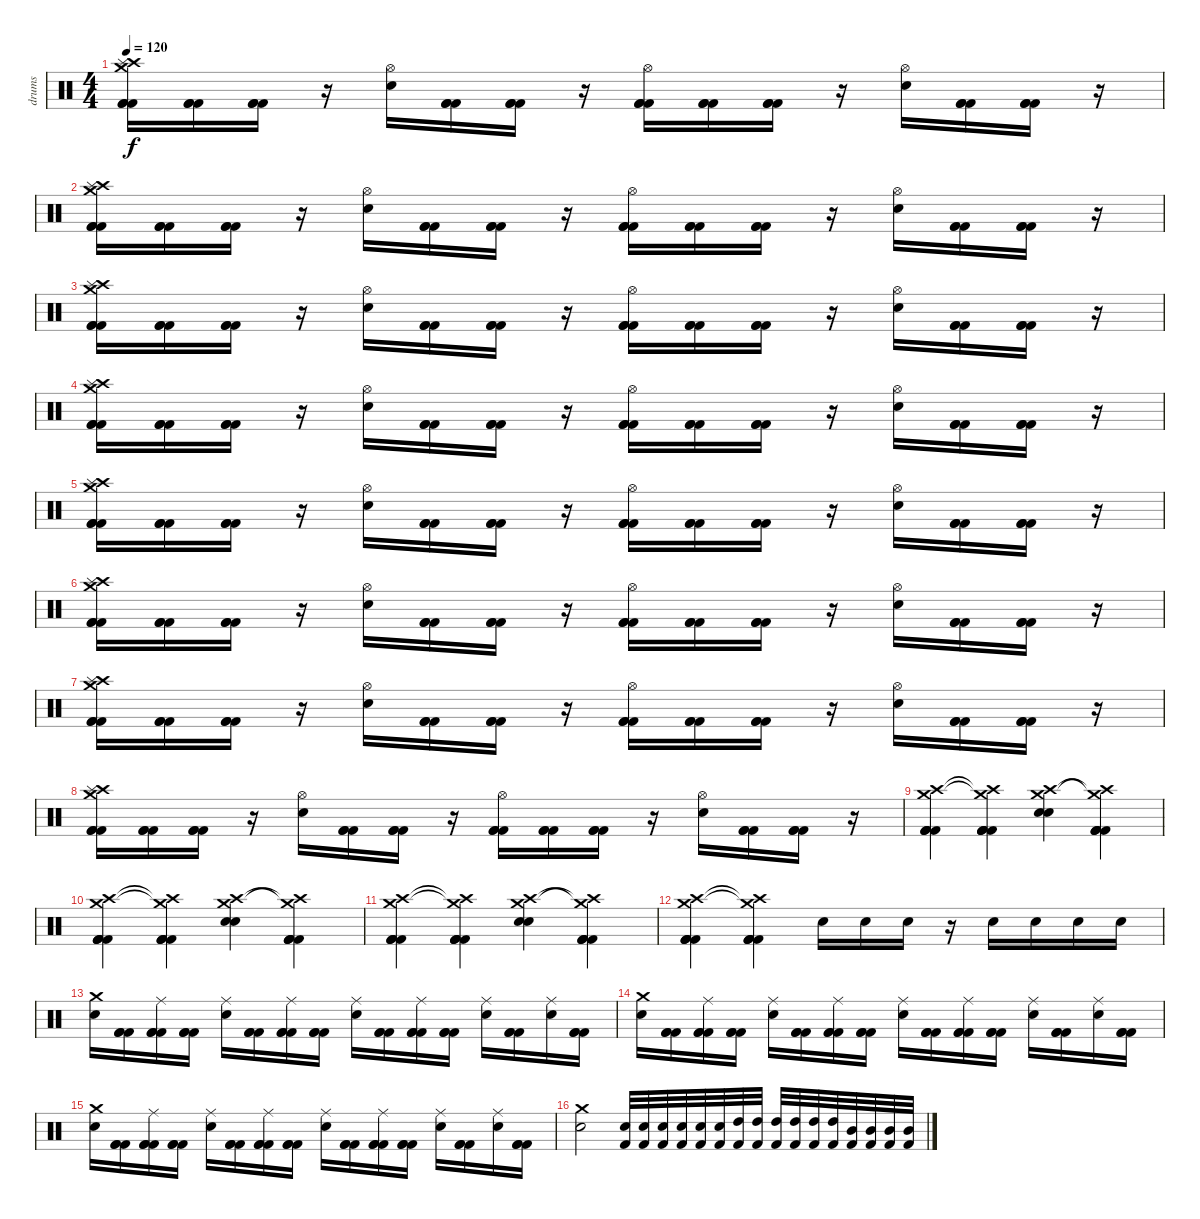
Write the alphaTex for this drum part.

\track ("drums" "drums") {instrument percussion}
\staff {score}
\articulation defaults
\ts (4 4)
\tempo 120
\clef neutral
\ks c
("Crash medium (hit)" "Crash high (hit)" "Splash (hit)" "Kick (hit) 2" "Kick (hit) 2" "Kick (hit) 2").16{dy f} ("Kick (hit) 2" "Kick (hit) 2" "Kick (hit) 2").16 ("Kick (hit) 2" "Kick (hit) 2" "Kick (hit) 2").16 r.16 ("Hi-Hat (open)" "Electric Snare (hit)").16 ("Kick (hit) 2" "Kick (hit) 2" "Kick (hit) 2").16 ("Kick (hit) 2" "Kick (hit) 2" "Kick (hit) 2").16 r.16 ("Hi-Hat (open)" "Kick (hit) 2" "Kick (hit) 2" "Kick (hit) 2").16 ("Kick (hit) 2" "Kick (hit) 2" "Kick (hit) 2").16 ("Kick (hit) 2" "Kick (hit) 2" "Kick (hit) 2").16 r.16 ("Hi-Hat (open)" "Electric Snare (hit)").16 ("Kick (hit) 2" "Kick (hit) 2" "Kick (hit) 2").16 ("Kick (hit) 2" "Kick (hit) 2" "Kick (hit) 2").16 r.16 |
("Crash medium (hit)" "Crash high (hit)" "Splash (hit)" "Kick (hit) 2" "Kick (hit) 2" "Kick (hit) 2").16 ("Kick (hit) 2" "Kick (hit) 2" "Kick (hit) 2").16 ("Kick (hit) 2" "Kick (hit) 2" "Kick (hit) 2").16 r.16 ("Hi-Hat (open)" "Electric Snare (hit)").16 ("Kick (hit) 2" "Kick (hit) 2" "Kick (hit) 2").16 ("Kick (hit) 2" "Kick (hit) 2" "Kick (hit) 2").16 r.16 ("Hi-Hat (open)" "Kick (hit) 2" "Kick (hit) 2" "Kick (hit) 2").16 ("Kick (hit) 2" "Kick (hit) 2" "Kick (hit) 2").16 ("Kick (hit) 2" "Kick (hit) 2" "Kick (hit) 2").16 r.16 ("Hi-Hat (open)" "Electric Snare (hit)").16 ("Kick (hit) 2" "Kick (hit) 2" "Kick (hit) 2").16 ("Kick (hit) 2" "Kick (hit) 2" "Kick (hit) 2").16 r.16 |
("Crash medium (hit)" "Crash high (hit)" "Splash (hit)" "Kick (hit) 2" "Kick (hit) 2" "Kick (hit) 2").16 ("Kick (hit) 2" "Kick (hit) 2" "Kick (hit) 2").16 ("Kick (hit) 2" "Kick (hit) 2" "Kick (hit) 2").16 r.16 ("Hi-Hat (open)" "Electric Snare (hit)").16 ("Kick (hit) 2" "Kick (hit) 2" "Kick (hit) 2").16 ("Kick (hit) 2" "Kick (hit) 2" "Kick (hit) 2").16 r.16 ("Hi-Hat (open)" "Kick (hit) 2" "Kick (hit) 2" "Kick (hit) 2").16 ("Kick (hit) 2" "Kick (hit) 2" "Kick (hit) 2").16 ("Kick (hit) 2" "Kick (hit) 2" "Kick (hit) 2").16 r.16 ("Hi-Hat (open)" "Electric Snare (hit)").16 ("Kick (hit) 2" "Kick (hit) 2" "Kick (hit) 2").16 ("Kick (hit) 2" "Kick (hit) 2" "Kick (hit) 2").16 r.16 |
("Crash medium (hit)" "Crash high (hit)" "Splash (hit)" "Kick (hit) 2" "Kick (hit) 2" "Kick (hit) 2").16 ("Kick (hit) 2" "Kick (hit) 2" "Kick (hit) 2").16 ("Kick (hit) 2" "Kick (hit) 2" "Kick (hit) 2").16 r.16 ("Hi-Hat (open)" "Electric Snare (hit)").16 ("Kick (hit) 2" "Kick (hit) 2" "Kick (hit) 2").16 ("Kick (hit) 2" "Kick (hit) 2" "Kick (hit) 2").16 r.16 ("Hi-Hat (open)" "Kick (hit) 2" "Kick (hit) 2" "Kick (hit) 2").16 ("Kick (hit) 2" "Kick (hit) 2" "Kick (hit) 2").16 ("Kick (hit) 2" "Kick (hit) 2" "Kick (hit) 2").16 r.16 ("Hi-Hat (open)" "Electric Snare (hit)").16 ("Kick (hit) 2" "Kick (hit) 2" "Kick (hit) 2").16 ("Kick (hit) 2" "Kick (hit) 2" "Kick (hit) 2").16 r.16 |
("Crash medium (hit)" "Crash high (hit)" "Splash (hit)" "Kick (hit) 2" "Kick (hit) 2" "Kick (hit) 2").16 ("Kick (hit) 2" "Kick (hit) 2" "Kick (hit) 2").16 ("Kick (hit) 2" "Kick (hit) 2" "Kick (hit) 2").16 r.16 ("Hi-Hat (open)" "Electric Snare (hit)").16 ("Kick (hit) 2" "Kick (hit) 2" "Kick (hit) 2").16 ("Kick (hit) 2" "Kick (hit) 2" "Kick (hit) 2").16 r.16 ("Hi-Hat (open)" "Kick (hit) 2" "Kick (hit) 2" "Kick (hit) 2").16 ("Kick (hit) 2" "Kick (hit) 2" "Kick (hit) 2").16 ("Kick (hit) 2" "Kick (hit) 2" "Kick (hit) 2").16 r.16 ("Hi-Hat (open)" "Electric Snare (hit)").16 ("Kick (hit) 2" "Kick (hit) 2" "Kick (hit) 2").16 ("Kick (hit) 2" "Kick (hit) 2" "Kick (hit) 2").16 r.16 |
("Crash medium (hit)" "Crash high (hit)" "Splash (hit)" "Kick (hit) 2" "Kick (hit) 2" "Kick (hit) 2").16 ("Kick (hit) 2" "Kick (hit) 2" "Kick (hit) 2").16 ("Kick (hit) 2" "Kick (hit) 2" "Kick (hit) 2").16 r.16 ("Hi-Hat (open)" "Electric Snare (hit)").16 ("Kick (hit) 2" "Kick (hit) 2" "Kick (hit) 2").16 ("Kick (hit) 2" "Kick (hit) 2" "Kick (hit) 2").16 r.16 ("Hi-Hat (open)" "Kick (hit) 2" "Kick (hit) 2" "Kick (hit) 2").16 ("Kick (hit) 2" "Kick (hit) 2" "Kick (hit) 2").16 ("Kick (hit) 2" "Kick (hit) 2" "Kick (hit) 2").16 r.16 ("Hi-Hat (open)" "Electric Snare (hit)").16 ("Kick (hit) 2" "Kick (hit) 2" "Kick (hit) 2").16 ("Kick (hit) 2" "Kick (hit) 2" "Kick (hit) 2").16 r.16 |
("Crash medium (hit)" "Crash high (hit)" "Splash (hit)" "Kick (hit) 2" "Kick (hit) 2" "Kick (hit) 2").16 ("Kick (hit) 2" "Kick (hit) 2" "Kick (hit) 2").16 ("Kick (hit) 2" "Kick (hit) 2" "Kick (hit) 2").16 r.16 ("Hi-Hat (open)" "Electric Snare (hit)").16 ("Kick (hit) 2" "Kick (hit) 2" "Kick (hit) 2").16 ("Kick (hit) 2" "Kick (hit) 2" "Kick (hit) 2").16 r.16 ("Hi-Hat (open)" "Kick (hit) 2" "Kick (hit) 2" "Kick (hit) 2").16 ("Kick (hit) 2" "Kick (hit) 2" "Kick (hit) 2").16 ("Kick (hit) 2" "Kick (hit) 2" "Kick (hit) 2").16 r.16 ("Hi-Hat (open)" "Electric Snare (hit)").16 ("Kick (hit) 2" "Kick (hit) 2" "Kick (hit) 2").16 ("Kick (hit) 2" "Kick (hit) 2" "Kick (hit) 2").16 r.16 |
("Crash medium (hit)" "Crash high (hit)" "Splash (hit)" "Kick (hit) 2" "Kick (hit) 2" "Kick (hit) 2").16 ("Kick (hit) 2" "Kick (hit) 2" "Kick (hit) 2").16 ("Kick (hit) 2" "Kick (hit) 2" "Kick (hit) 2").16 r.16 ("Hi-Hat (open)" "Electric Snare (hit)").16 ("Kick (hit) 2" "Kick (hit) 2" "Kick (hit) 2").16 ("Kick (hit) 2" "Kick (hit) 2" "Kick (hit) 2").16 r.16 ("Hi-Hat (open)" "Kick (hit) 2" "Kick (hit) 2" "Kick (hit) 2").16 ("Kick (hit) 2" "Kick (hit) 2" "Kick (hit) 2").16 ("Kick (hit) 2" "Kick (hit) 2" "Kick (hit) 2").16 r.16 ("Hi-Hat (open)" "Electric Snare (hit)").16 ("Kick (hit) 2" "Kick (hit) 2" "Kick (hit) 2").16 ("Kick (hit) 2" "Kick (hit) 2" "Kick (hit) 2").16 r.16 |
("Crash high (hit)" "Crash medium (hit)" "Kick (hit) 2" "Kick (hit) 2" "Kick (hit) 2" "Kick (hit) 2").4 ("Crash high (hit)"{t} "Crash medium (hit)"{t} "Kick (hit) 2" "Kick (hit) 2" "Kick (hit) 2" "Kick (hit) 2").4 ("Crash medium (hit)" "Crash high (hit)" "Electric Snare (hit)" "Electric Snare (hit)").4 ("Crash high (hit)"{t} "Crash medium (hit)"{t} "Kick (hit) 2" "Kick (hit) 2" "Kick (hit) 2" "Kick (hit) 2").4 |
("Crash high (hit)" "Crash medium (hit)" "Kick (hit) 2" "Kick (hit) 2" "Kick (hit) 2" "Kick (hit) 2").4 ("Crash high (hit)"{t} "Crash medium (hit)"{t} "Kick (hit) 2" "Kick (hit) 2" "Kick (hit) 2" "Kick (hit) 2").4 ("Crash medium (hit)" "Crash high (hit)" "Electric Snare (hit)" "Electric Snare (hit)").4 ("Crash high (hit)"{t} "Crash medium (hit)"{t} "Kick (hit) 2" "Kick (hit) 2" "Kick (hit) 2" "Kick (hit) 2").4 |
("Crash high (hit)" "Crash medium (hit)" "Kick (hit) 2" "Kick (hit) 2" "Kick (hit) 2" "Kick (hit) 2").4 ("Crash high (hit)"{t} "Crash medium (hit)"{t} "Kick (hit) 2" "Kick (hit) 2" "Kick (hit) 2" "Kick (hit) 2").4 ("Crash medium (hit)" "Crash high (hit)" "Electric Snare (hit)" "Electric Snare (hit)").4 ("Crash high (hit)"{t} "Crash medium (hit)"{t} "Kick (hit) 2" "Kick (hit) 2" "Kick (hit) 2" "Kick (hit) 2").4 |
("Crash high (hit)" "Crash medium (hit)" "Kick (hit) 2" "Kick (hit) 2" "Kick (hit) 2" "Kick (hit) 2").4 ("Crash high (hit)"{t} "Crash medium (hit)"{t} "Kick (hit) 2" "Kick (hit) 2" "Kick (hit) 2" "Kick (hit) 2").4 "Electric Snare (hit)".16 "Electric Snare (hit)".16 "Electric Snare (hit)".16 r.16 "Electric Snare (hit)".16 "Electric Snare (hit)".16 "Electric Snare (hit)".16 "Electric Snare (hit)".16 |
("Crash medium (hit)" "Electric Snare (hit)").16 ("Kick (hit) 2" "Kick (hit) 2" "Kick (hit) 2").16 ("Ride (middle)" "Kick (hit) 2" "Kick (hit) 2" "Kick (hit) 2").16 ("Kick (hit) 2" "Kick (hit) 2" "Kick (hit) 2").16 ("Ride (middle)" "Electric Snare (hit)").16 ("Kick (hit) 2" "Kick (hit) 2" "Kick (hit) 2").16 ("Ride (middle)" "Kick (hit) 2" "Kick (hit) 2" "Kick (hit) 2").16 ("Kick (hit) 2" "Kick (hit) 2" "Kick (hit) 2").16 ("Ride (middle)" "Electric Snare (hit)").16 ("Kick (hit) 2" "Kick (hit) 2" "Kick (hit) 2").16 ("Ride (middle)" "Kick (hit) 2" "Kick (hit) 2" "Kick (hit) 2").16 ("Kick (hit) 2" "Kick (hit) 2" "Kick (hit) 2").16 ("Ride (middle)" "Electric Snare (hit)").16 ("Kick (hit) 2" "Kick (hit) 2" "Kick (hit) 2").16 ("Ride (middle)" "Electric Snare (hit)").16 ("Kick (hit) 2" "Kick (hit) 2" "Kick (hit) 2").16 |
("Crash medium (hit)" "Electric Snare (hit)").16 ("Kick (hit) 2" "Kick (hit) 2" "Kick (hit) 2").16 ("Ride (middle)" "Kick (hit) 2" "Kick (hit) 2" "Kick (hit) 2").16 ("Kick (hit) 2" "Kick (hit) 2" "Kick (hit) 2").16 ("Ride (middle)" "Electric Snare (hit)").16 ("Kick (hit) 2" "Kick (hit) 2" "Kick (hit) 2").16 ("Ride (middle)" "Kick (hit) 2" "Kick (hit) 2" "Kick (hit) 2").16 ("Kick (hit) 2" "Kick (hit) 2" "Kick (hit) 2").16 ("Ride (middle)" "Electric Snare (hit)").16 ("Kick (hit) 2" "Kick (hit) 2" "Kick (hit) 2").16 ("Ride (middle)" "Kick (hit) 2" "Kick (hit) 2" "Kick (hit) 2").16 ("Kick (hit) 2" "Kick (hit) 2" "Kick (hit) 2").16 ("Ride (middle)" "Electric Snare (hit)").16 ("Kick (hit) 2" "Kick (hit) 2" "Kick (hit) 2").16 ("Ride (middle)" "Electric Snare (hit)").16 ("Kick (hit) 2" "Kick (hit) 2" "Kick (hit) 2").16 |
("Crash medium (hit)" "Electric Snare (hit)").16 ("Kick (hit) 2" "Kick (hit) 2" "Kick (hit) 2").16 ("Ride (middle)" "Kick (hit) 2" "Kick (hit) 2" "Kick (hit) 2").16 ("Kick (hit) 2" "Kick (hit) 2" "Kick (hit) 2").16 ("Ride (middle)" "Electric Snare (hit)").16 ("Kick (hit) 2" "Kick (hit) 2" "Kick (hit) 2").16 ("Ride (middle)" "Kick (hit) 2" "Kick (hit) 2" "Kick (hit) 2").16 ("Kick (hit) 2" "Kick (hit) 2" "Kick (hit) 2").16 ("Ride (middle)" "Electric Snare (hit)").16 ("Kick (hit) 2" "Kick (hit) 2" "Kick (hit) 2").16 ("Ride (middle)" "Kick (hit) 2" "Kick (hit) 2" "Kick (hit) 2").16 ("Kick (hit) 2" "Kick (hit) 2" "Kick (hit) 2").16 ("Ride (middle)" "Electric Snare (hit)").16 ("Kick (hit) 2" "Kick (hit) 2" "Kick (hit) 2").16 ("Ride (middle)" "Electric Snare (hit)").16 ("Kick (hit) 2" "Kick (hit) 2" "Kick (hit) 2").16 |
("Crash medium (hit)" "Electric Snare (hit)").2 ("Electric Snare (hit)" "Kick (hit) 2").32 ("Electric Snare (hit)" "Kick (hit) 2").32 ("Electric Snare (hit)" "Kick (hit) 2").32 ("Electric Snare (hit)" "Kick (hit) 2").32 ("Electric Snare (hit)" "Kick (hit) 2").32 ("Electric Snare (hit)" "Kick (hit) 2").32 ("High Tom (hit)" "Kick (hit) 2").32 ("High Tom (hit)" "Kick (hit) 2").32 ("High Tom (hit)" "Kick (hit) 2").32 ("High Tom (hit)" "Kick (hit) 2").32 ("High Tom (hit)" "Kick (hit) 2").32 ("High Tom (hit)" "Kick (hit) 2").32 ("Mid Tom (hit)" "Kick (hit) 2").32 ("Mid Tom (hit)" "Kick (hit) 2").32 ("Mid Tom (hit)" "Kick (hit) 2").32 ("Mid Tom (hit)" "Kick (hit) 2").32
